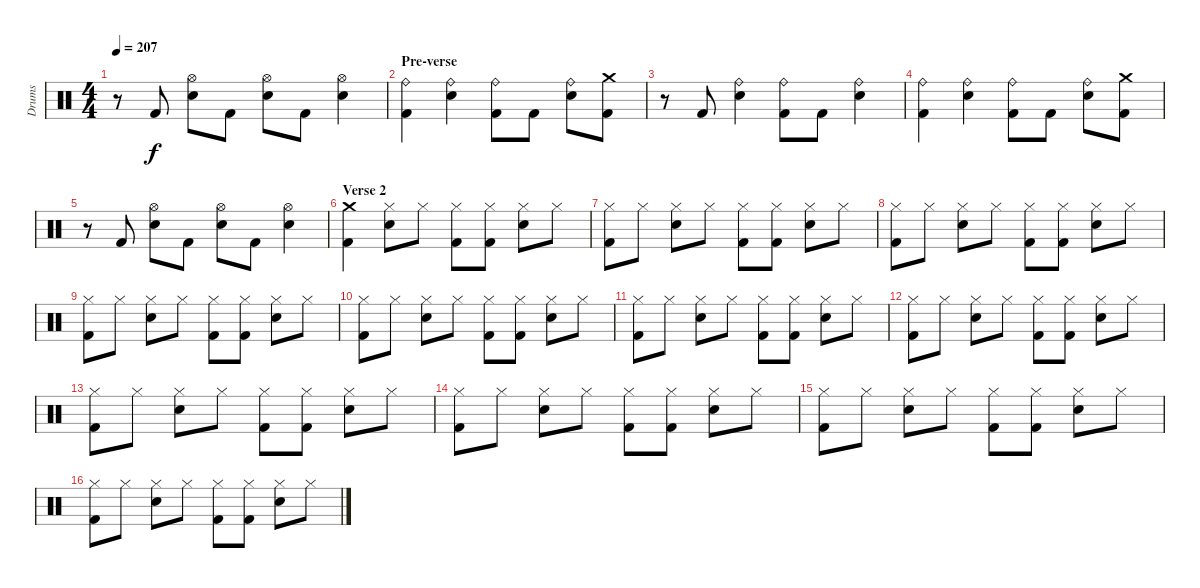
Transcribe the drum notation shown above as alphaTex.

\track ("Drums" "Drums") {instrument percussion}
\staff {score}
\articulation defaults
\ts (4 4)
\tempo 207
\clef neutral
\ks c
r.8{dy f} "Kick (hit) 2".8 ("Hi-Hat (open)" "Snare (hit) 2").8 "Kick (hit) 2".8 ("Hi-Hat (open)" "Snare (hit) 2").8 "Kick (hit) 2".8 ("Hi-Hat (open)" "Snare (hit) 2").4 |
\section ("" "Pre-verse")
("Ride (bell)" "Kick (hit) 2").4 ("Ride (bell)" "Snare (hit) 2").4 ("Ride (bell)" "Kick (hit) 2").8 "Kick (hit) 2".8 ("Ride (bell)" "Snare (hit) 2").8 ("Crash medium (hit)" "Kick (hit) 2").8 |
r.8 "Kick (hit) 2".8 ("Ride (bell)" "Snare (hit) 2").4 ("Ride (bell)" "Kick (hit) 2").8 "Kick (hit) 2".8 ("Ride (bell)" "Snare (hit) 2").4 |
("Ride (bell)" "Kick (hit) 2").4 ("Ride (bell)" "Snare (hit) 2").4 ("Ride (bell)" "Kick (hit) 2").8 "Kick (hit) 2".8 ("Ride (bell)" "Snare (hit) 2").8 ("Crash medium (hit)" "Kick (hit) 2").8 |
r.8 "Kick (hit) 2".8 ("Hi-Hat (open)" "Snare (hit) 2").8 "Kick (hit) 2".8 ("Hi-Hat (open)" "Snare (hit) 2").8 "Kick (hit) 2".8 ("Hi-Hat (open)" "Snare (hit) 2").4 |
\section ("" "Verse 2")
("Crash medium (hit)" "Kick (hit) 2").4 ("Hi-Hat (closed)" "Snare (hit) 2").8 "Hi-Hat (closed)".8 ("Hi-Hat (closed)" "Kick (hit) 2").8 ("Hi-Hat (closed)" "Kick (hit) 2").8 ("Hi-Hat (closed)" "Snare (hit) 2").8 "Hi-Hat (closed)".8 |
("Hi-Hat (closed)" "Kick (hit) 2").8 "Hi-Hat (closed)".8 ("Hi-Hat (closed)" "Snare (hit) 2").8 "Hi-Hat (closed)".8 ("Hi-Hat (closed)" "Kick (hit) 2").8 ("Hi-Hat (closed)" "Kick (hit) 2").8 ("Hi-Hat (closed)" "Snare (hit) 2").8 "Hi-Hat (closed)".8 |
("Hi-Hat (closed)" "Kick (hit) 2").8 "Hi-Hat (closed)".8 ("Hi-Hat (closed)" "Snare (hit) 2").8 "Hi-Hat (closed)".8 ("Hi-Hat (closed)" "Kick (hit) 2").8 ("Hi-Hat (closed)" "Kick (hit) 2").8 ("Hi-Hat (closed)" "Snare (hit) 2").8 "Hi-Hat (closed)".8 |
("Hi-Hat (closed)" "Kick (hit) 2").8 "Hi-Hat (closed)".8 ("Hi-Hat (closed)" "Snare (hit) 2").8 "Hi-Hat (closed)".8 ("Hi-Hat (closed)" "Kick (hit) 2").8 ("Hi-Hat (closed)" "Kick (hit) 2").8 ("Hi-Hat (closed)" "Snare (hit) 2").8 "Hi-Hat (closed)".8 |
("Hi-Hat (closed)" "Kick (hit) 2").8 "Hi-Hat (closed)".8 ("Hi-Hat (closed)" "Snare (hit) 2").8 "Hi-Hat (closed)".8 ("Hi-Hat (closed)" "Kick (hit) 2").8 ("Hi-Hat (closed)" "Kick (hit) 2").8 ("Hi-Hat (closed)" "Snare (hit) 2").8 "Hi-Hat (closed)".8 |
("Hi-Hat (closed)" "Kick (hit) 2").8 "Hi-Hat (closed)".8 ("Hi-Hat (closed)" "Snare (hit) 2").8 "Hi-Hat (closed)".8 ("Hi-Hat (closed)" "Kick (hit) 2").8 ("Hi-Hat (closed)" "Kick (hit) 2").8 ("Hi-Hat (closed)" "Snare (hit) 2").8 "Hi-Hat (closed)".8 |
("Hi-Hat (closed)" "Kick (hit) 2").8 "Hi-Hat (closed)".8 ("Hi-Hat (closed)" "Snare (hit) 2").8 "Hi-Hat (closed)".8 ("Hi-Hat (closed)" "Kick (hit) 2").8 ("Hi-Hat (closed)" "Kick (hit) 2").8 ("Hi-Hat (closed)" "Snare (hit) 2").8 "Hi-Hat (closed)".8 |
("Hi-Hat (closed)" "Kick (hit) 2").8 "Hi-Hat (closed)".8 ("Hi-Hat (closed)" "Snare (hit) 2").8 "Hi-Hat (closed)".8 ("Hi-Hat (closed)" "Kick (hit) 2").8 ("Hi-Hat (closed)" "Kick (hit) 2").8 ("Hi-Hat (closed)" "Snare (hit) 2").8 "Hi-Hat (closed)".8 |
("Hi-Hat (closed)" "Kick (hit) 2").8 "Hi-Hat (closed)".8 ("Hi-Hat (closed)" "Snare (hit) 2").8 "Hi-Hat (closed)".8 ("Hi-Hat (closed)" "Kick (hit) 2").8 ("Hi-Hat (closed)" "Kick (hit) 2").8 ("Hi-Hat (closed)" "Snare (hit) 2").8 "Hi-Hat (closed)".8 |
("Hi-Hat (closed)" "Kick (hit) 2").8 "Hi-Hat (closed)".8 ("Hi-Hat (closed)" "Snare (hit) 2").8 "Hi-Hat (closed)".8 ("Hi-Hat (closed)" "Kick (hit) 2").8 ("Hi-Hat (closed)" "Kick (hit) 2").8 ("Hi-Hat (closed)" "Snare (hit) 2").8 "Hi-Hat (closed)".8 |
("Hi-Hat (closed)" "Kick (hit) 2").8 "Hi-Hat (closed)".8 ("Hi-Hat (closed)" "Snare (hit) 2").8 "Hi-Hat (closed)".8 ("Hi-Hat (closed)" "Kick (hit) 2").8 ("Hi-Hat (closed)" "Kick (hit) 2").8 ("Hi-Hat (closed)" "Snare (hit) 2").8 "Hi-Hat (closed)".8
